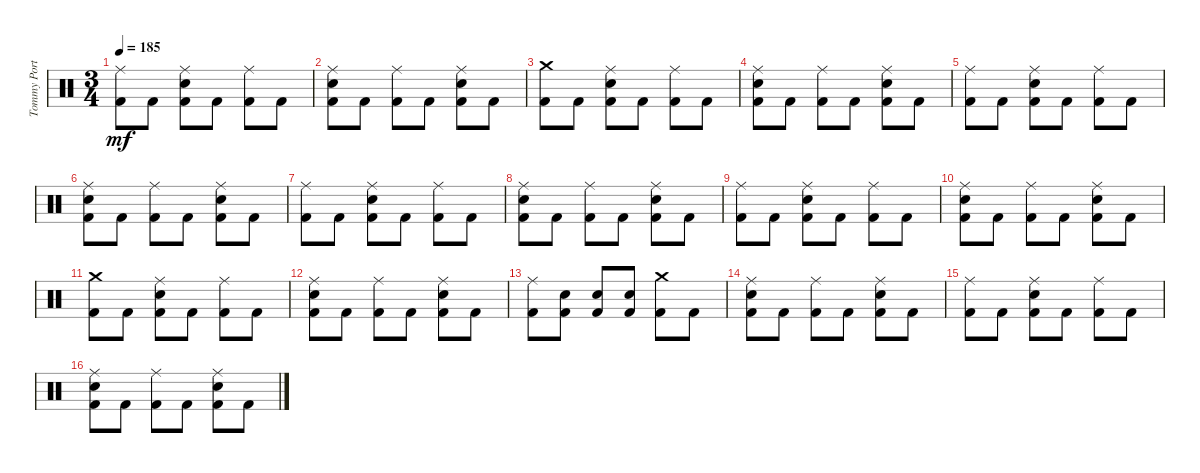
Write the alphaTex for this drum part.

\track ("Tommy Portino" "Tommy Port") {instrument percussion}
\staff {score}
\articulation defaults
\ts (3 4)
\tempo 185
\clef neutral
\ks c
("Ride (middle)" "Kick (hit) 2").8{dy mf} "Kick (hit) 2".8 ("Ride (middle)" "Snare (hit) 2" "Kick (hit) 2").8 "Kick (hit) 2".8 ("Ride (middle)" "Kick (hit) 2").8 "Kick (hit) 2".8 |
("Ride (middle)" "Snare (hit) 2" "Kick (hit) 2").8 "Kick (hit) 2".8 ("Ride (middle)" "Kick (hit) 2").8 "Kick (hit) 2".8 ("Ride (middle)" "Snare (hit) 2" "Kick (hit) 2").8 "Kick (hit) 2".8 |
("Crash medium (hit)" "Kick (hit) 2").8 "Kick (hit) 2".8 ("Ride (middle)" "Snare (hit) 2" "Kick (hit) 2").8 "Kick (hit) 2".8 ("Ride (middle)" "Kick (hit) 2").8 "Kick (hit) 2".8 |
("Ride (middle)" "Snare (hit) 2" "Kick (hit) 2").8 "Kick (hit) 2".8 ("Ride (middle)" "Kick (hit) 2").8 "Kick (hit) 2".8 ("Ride (middle)" "Snare (hit) 2" "Kick (hit) 2").8 "Kick (hit) 2".8 |
("Ride (middle)" "Kick (hit) 2").8 "Kick (hit) 2".8 ("Ride (middle)" "Snare (hit) 2" "Kick (hit) 2").8 "Kick (hit) 2".8 ("Ride (middle)" "Kick (hit) 2").8 "Kick (hit) 2".8 |
("Ride (middle)" "Snare (hit) 2" "Kick (hit) 2").8 "Kick (hit) 2".8 ("Ride (middle)" "Kick (hit) 2").8 "Kick (hit) 2".8 ("Ride (middle)" "Snare (hit) 2" "Kick (hit) 2").8 "Kick (hit) 2".8 |
("Ride (middle)" "Kick (hit) 2").8 "Kick (hit) 2".8 ("Ride (middle)" "Snare (hit) 2" "Kick (hit) 2").8 "Kick (hit) 2".8 ("Ride (middle)" "Kick (hit) 2").8 "Kick (hit) 2".8 |
("Ride (middle)" "Snare (hit) 2" "Kick (hit) 2").8 "Kick (hit) 2".8 ("Ride (middle)" "Kick (hit) 2").8 "Kick (hit) 2".8 ("Ride (middle)" "Snare (hit) 2" "Kick (hit) 2").8 "Kick (hit) 2".8 |
("Ride (middle)" "Kick (hit) 2").8 "Kick (hit) 2".8 ("Ride (middle)" "Snare (hit) 2" "Kick (hit) 2").8 "Kick (hit) 2".8 ("Ride (middle)" "Kick (hit) 2").8 "Kick (hit) 2".8 |
("Ride (middle)" "Snare (hit) 2" "Kick (hit) 2").8 "Kick (hit) 2".8 ("Ride (middle)" "Kick (hit) 2").8 "Kick (hit) 2".8 ("Ride (middle)" "Snare (hit) 2" "Kick (hit) 2").8 "Kick (hit) 2".8 |
("Crash medium (hit)" "Kick (hit) 2").8 "Kick (hit) 2".8 ("Ride (middle)" "Snare (hit) 2" "Kick (hit) 2").8 "Kick (hit) 2".8 ("Ride (middle)" "Kick (hit) 2").8 "Kick (hit) 2".8 |
("Ride (middle)" "Snare (hit) 2" "Kick (hit) 2").8 "Kick (hit) 2".8 ("Ride (middle)" "Kick (hit) 2").8 "Kick (hit) 2".8 ("Ride (middle)" "Snare (hit) 2" "Kick (hit) 2").8 "Kick (hit) 2".8 |
("Ride (middle)" "Kick (hit) 2").8 ("Snare (hit) 2" "Kick (hit) 2").8 ("Snare (hit) 2" "Kick (hit) 2").8 ("Snare (hit) 2" "Kick (hit) 2").8 ("Crash medium (hit)" "Kick (hit) 2").8 "Kick (hit) 2".8 |
("Snare (hit) 2" "Ride (middle)" "Kick (hit) 2").8 "Kick (hit) 2".8 ("Ride (middle)" "Kick (hit) 2").8 "Kick (hit) 2".8 ("Ride (middle)" "Snare (hit) 2" "Kick (hit) 2").8 "Kick (hit) 2".8 |
("Ride (middle)" "Kick (hit) 2").8 "Kick (hit) 2".8 ("Ride (middle)" "Snare (hit) 2" "Kick (hit) 2").8 "Kick (hit) 2".8 ("Ride (middle)" "Kick (hit) 2").8 "Kick (hit) 2".8 |
("Ride (middle)" "Snare (hit) 2" "Kick (hit) 2").8 "Kick (hit) 2".8 ("Ride (middle)" "Kick (hit) 2").8 "Kick (hit) 2".8 ("Ride (middle)" "Snare (hit) 2" "Kick (hit) 2").8 "Kick (hit) 2".8
